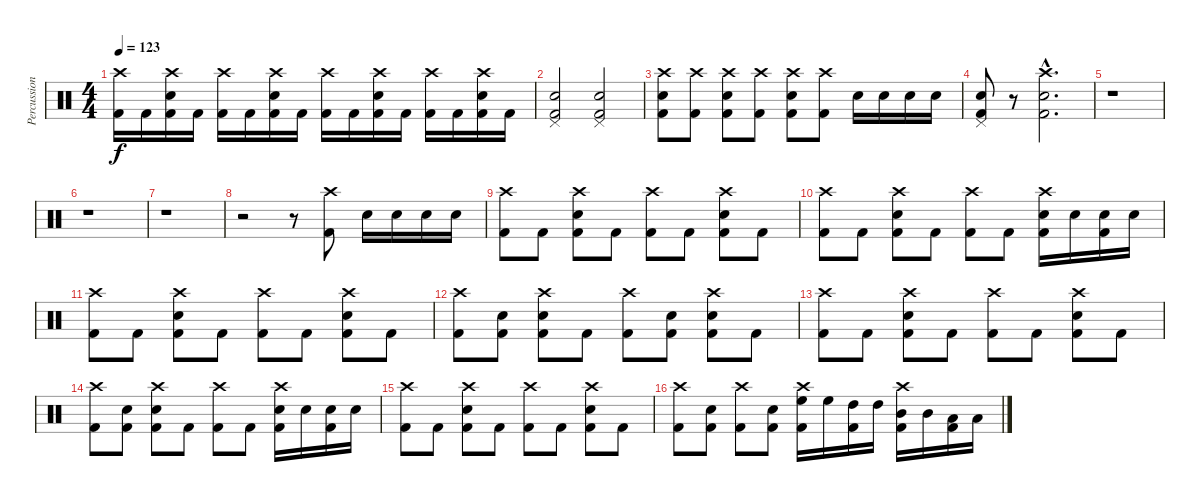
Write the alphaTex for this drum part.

\track ("Percussion" "Percussion") {instrument percussion}
\staff {score}
\articulation defaults
\ts (4 4)
\tempo 123
\clef neutral
\ks c
("Crash high (hit)" "Kick (hit) 2").16{dy f} "Kick (hit) 2".16 ("Crash high (hit)" "Electric Snare (hit)" "Kick (hit) 2").16 "Kick (hit) 2".16 ("Crash high (hit)" "Kick (hit) 2").16 "Kick (hit) 2".16 ("Crash high (hit)" "Electric Snare (hit)" "Kick (hit) 2").16 "Kick (hit) 2".16 ("Crash high (hit)" "Kick (hit) 2").16 "Kick (hit) 2".16 ("Crash high (hit)" "Electric Snare (hit)" "Kick (hit) 2").16 "Kick (hit) 2".16 ("Crash high (hit)" "Kick (hit) 2").16 "Kick (hit) 2".16 ("Crash high (hit)" "Electric Snare (hit)" "Kick (hit) 2").16 "Kick (hit) 2".16 |
("Pedal Hi-Hat (hit)" "Electric Snare (hit)" "Kick (hit) 2").2 ("Pedal Hi-Hat (hit)" "Electric Snare (hit)" "Kick (hit) 2").2 |
("Crash high (hit)" "Electric Snare (hit)" "Kick (hit) 2").8 ("Crash high (hit)" "Kick (hit) 2").8 ("Crash high (hit)" "Electric Snare (hit)" "Kick (hit) 2").8 ("Crash high (hit)" "Kick (hit) 2").8 ("Crash high (hit)" "Electric Snare (hit)" "Kick (hit) 2").8 ("Crash high (hit)" "Kick (hit) 2").8 "Electric Snare (hit)".16 "Electric Snare (hit)".16 "Electric Snare (hit)".16 "Electric Snare (hit)".16 |
("Pedal Hi-Hat (hit)" "Electric Snare (hit)" "Kick (hit) 2").8 r.8 ("Crash high (hit)"{hac} "Electric Snare (hit)"{hac} "Kick (hit) 2"{hac}).2{d} |
r.1 |
r.1 |
r.1 |
r.2 r.8 ("Crash high (hit)" "Kick (hit) 2").8 "Electric Snare (hit)".16 "Electric Snare (hit)".16 "Electric Snare (hit)".16 "Electric Snare (hit)".16 |
("Crash high (hit)" "Kick (hit) 2").8 "Kick (hit) 2".8 ("Crash high (hit)" "Electric Snare (hit)" "Kick (hit) 2").8 "Kick (hit) 2".8 ("Crash high (hit)" "Kick (hit) 2").8 "Kick (hit) 2".8 ("Crash high (hit)" "Electric Snare (hit)" "Kick (hit) 2").8 "Kick (hit) 2".8 |
("Crash high (hit)" "Kick (hit) 2").8 "Kick (hit) 2".8 ("Crash high (hit)" "Electric Snare (hit)" "Kick (hit) 2").8 "Kick (hit) 2".8 ("Crash high (hit)" "Kick (hit) 2").8 "Kick (hit) 2".8 ("Crash high (hit)" "Electric Snare (hit)" "Kick (hit) 2").16 "Electric Snare (hit)".16 ("Electric Snare (hit)" "Kick (hit) 2").16 "Electric Snare (hit)".16 |
("Crash high (hit)" "Kick (hit) 2").8 "Kick (hit) 2".8 ("Crash high (hit)" "Electric Snare (hit)" "Kick (hit) 2").8 "Kick (hit) 2".8 ("Crash high (hit)" "Kick (hit) 2").8 "Kick (hit) 2".8 ("Crash high (hit)" "Electric Snare (hit)" "Kick (hit) 2").8 "Kick (hit) 2".8 |
("Crash high (hit)" "Kick (hit) 2").8 ("Electric Snare (hit)" "Kick (hit) 2").8 ("Crash high (hit)" "Electric Snare (hit)" "Kick (hit) 2").8 "Kick (hit) 2".8 ("Crash high (hit)" "Kick (hit) 2").8 ("Electric Snare (hit)" "Kick (hit) 2").8 ("Crash high (hit)" "Electric Snare (hit)" "Kick (hit) 2").8 "Kick (hit) 2".8 |
("Crash high (hit)" "Kick (hit) 2").8 "Kick (hit) 2".8 ("Crash high (hit)" "Electric Snare (hit)" "Kick (hit) 2").8 "Kick (hit) 2".8 ("Crash high (hit)" "Kick (hit) 2").8 "Kick (hit) 2".8 ("Crash high (hit)" "Electric Snare (hit)" "Kick (hit) 2").8 "Kick (hit) 2".8 |
("Crash high (hit)" "Kick (hit) 2").8 ("Electric Snare (hit)" "Kick (hit) 2").8 ("Crash high (hit)" "Electric Snare (hit)" "Kick (hit) 2").8 "Kick (hit) 2".8 ("Crash high (hit)" "Kick (hit) 2").8 "Kick (hit) 2".8 ("Crash high (hit)" "Electric Snare (hit)" "Kick (hit) 2").16 "Electric Snare (hit)".16 ("Electric Snare (hit)" "Kick (hit) 2").16 "Electric Snare (hit)".16 |
("Crash high (hit)" "Kick (hit) 2").8 "Kick (hit) 2".8 ("Crash high (hit)" "Electric Snare (hit)" "Kick (hit) 2").8 "Kick (hit) 2".8 ("Crash high (hit)" "Kick (hit) 2").8 "Kick (hit) 2".8 ("Crash high (hit)" "Electric Snare (hit)" "Kick (hit) 2").8 "Kick (hit) 2".8 |
("Crash high (hit)" "Kick (hit) 2").8 ("Electric Snare (hit)" "Kick (hit) 2").8 ("Crash high (hit)" "Kick (hit) 2").8 ("Electric Snare (hit)" "Kick (hit) 2").8 ("Crash high (hit)" "High Floor Tom (hit)" "Kick (hit) 2").16 "High Floor Tom (hit)".16 ("High Tom (hit)" "Kick (hit) 2").16 "High Tom (hit)".16 ("Crash high (hit)" "Mid Tom (hit)" "Kick (hit) 2").16 "Mid Tom (hit)".16 ("Low Tom (hit)" "Kick (hit) 2").16 "Low Tom (hit)".16
